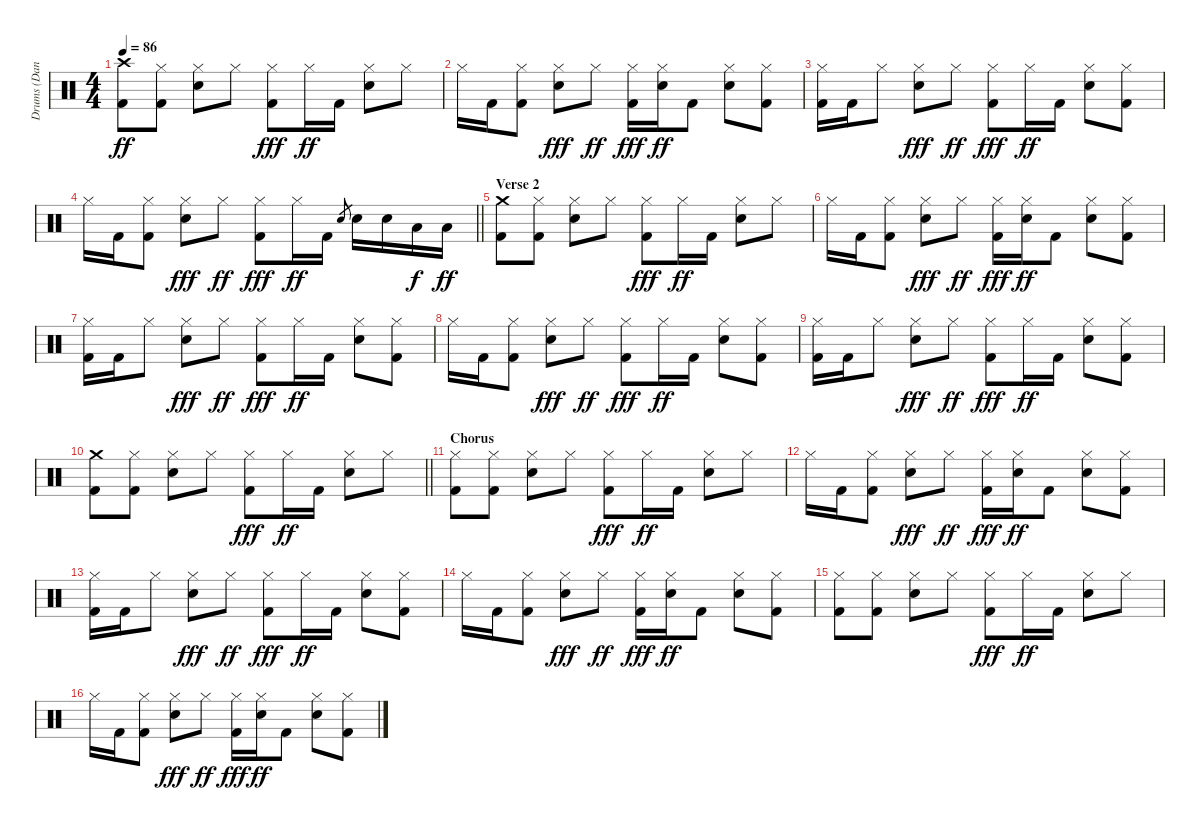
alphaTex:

\track ("Drums (Dan)" "Drums (Dan") {instrument percussion}
\staff {score}
\articulation defaults
\ts (4 4)
\tempo 86
\clef neutral
\ks c
("Crash high (hit)" "Kick (hit) 2").8{dy ff} ("Hi-Hat (closed)" "Kick (hit) 2").8 ("Hi-Hat (closed)" "Electric Snare (hit)").8 "Hi-Hat (closed)".8 ("Hi-Hat (closed)" "Kick (hit) 2").8{dy fff} "Hi-Hat (closed)".16{dy ff} "Kick (hit) 2".16 ("Hi-Hat (closed)" "Electric Snare (hit)").8 "Hi-Hat (closed)".8 |
"Hi-Hat (closed)".16 "Kick (hit) 2".16 ("Hi-Hat (closed)" "Kick (hit) 2").8 ("Hi-Hat (closed)" "Electric Snare (hit)").8{dy fff} "Hi-Hat (closed)".8{dy ff} ("Hi-Hat (closed)" "Kick (hit) 2").16{dy fff} ("Hi-Hat (closed)" "Electric Snare (hit)").16{dy ff} "Kick (hit) 2".8 ("Hi-Hat (closed)" "Electric Snare (hit)").8 ("Hi-Hat (closed)" "Kick (hit) 2").8 |
("Hi-Hat (closed)" "Kick (hit) 2").16 "Kick (hit) 2".16 "Hi-Hat (closed)".8 ("Hi-Hat (closed)" "Electric Snare (hit)").8{dy fff} "Hi-Hat (closed)".8{dy ff} ("Hi-Hat (closed)" "Kick (hit) 2").8{dy fff} "Hi-Hat (closed)".16{dy ff} "Kick (hit) 2".16 ("Hi-Hat (closed)" "Electric Snare (hit)").8 ("Hi-Hat (closed)" "Kick (hit) 2").8 |
\barLineRight lightlight "Hi-Hat (closed)".16 "Kick (hit) 2".16
("Hi-Hat (closed)" "Kick (hit) 2").8 ("Hi-Hat (closed)" "Electric Snare (hit)").8{dy fff} "Hi-Hat (closed)".8{dy ff} ("Hi-Hat (closed)" "Kick (hit) 2").8{dy fff} "Hi-Hat (closed)".16{dy ff} "Kick (hit) 2".16 "Electric Snare (hit)".8{gr} "Electric Snare (hit)".16 "Electric Snare (hit)".16 "Low Tom (hit)".16{dy f} "Low Floor Tom (hit)".16{dy ff} |
\section ("" "Verse 2")
("Crash medium (hit)" "Kick (hit) 2").8 ("Hi-Hat (closed)" "Kick (hit) 2").8 ("Hi-Hat (closed)" "Electric Snare (hit)").8 "Hi-Hat (closed)".8 ("Hi-Hat (closed)" "Kick (hit) 2").8{dy fff} "Hi-Hat (closed)".16{dy ff} "Kick (hit) 2".16 ("Hi-Hat (closed)" "Electric Snare (hit)").8 "Hi-Hat (closed)".8 |
"Hi-Hat (closed)".16 "Kick (hit) 2".16 ("Hi-Hat (closed)" "Kick (hit) 2").8 ("Hi-Hat (closed)" "Electric Snare (hit)").8{dy fff} "Hi-Hat (closed)".8{dy ff} ("Hi-Hat (closed)" "Kick (hit) 2").16{dy fff} ("Hi-Hat (closed)" "Electric Snare (hit)").16{dy ff} "Kick (hit) 2".8 ("Hi-Hat (closed)" "Electric Snare (hit)").8 ("Hi-Hat (closed)" "Kick (hit) 2").8 |
("Hi-Hat (closed)" "Kick (hit) 2").16 "Kick (hit) 2".16 "Hi-Hat (closed)".8 ("Hi-Hat (closed)" "Electric Snare (hit)").8{dy fff} "Hi-Hat (closed)".8{dy ff} ("Hi-Hat (closed)" "Kick (hit) 2").8{dy fff} "Hi-Hat (closed)".16{dy ff} "Kick (hit) 2".16 ("Hi-Hat (closed)" "Electric Snare (hit)").8 ("Hi-Hat (closed)" "Kick (hit) 2").8 |
"Hi-Hat (closed)".16 "Kick (hit) 2".16 ("Hi-Hat (closed)" "Kick (hit) 2").8 ("Hi-Hat (closed)" "Electric Snare (hit)").8{dy fff} "Hi-Hat (closed)".8{dy ff} ("Hi-Hat (closed)" "Kick (hit) 2").8{dy fff} "Hi-Hat (closed)".16{dy ff} "Kick (hit) 2".16 ("Hi-Hat (closed)" "Electric Snare (hit)").8 ("Hi-Hat (closed)" "Kick (hit) 2").8 |
("Hi-Hat (closed)" "Kick (hit) 2").16 "Kick (hit) 2".16 "Hi-Hat (closed)".8 ("Hi-Hat (closed)" "Electric Snare (hit)").8{dy fff} "Hi-Hat (closed)".8{dy ff} ("Hi-Hat (closed)" "Kick (hit) 2").8{dy fff} "Hi-Hat (closed)".16{dy ff} "Kick (hit) 2".16 ("Hi-Hat (closed)" "Electric Snare (hit)").8 ("Hi-Hat (closed)" "Kick (hit) 2").8 |
\barLineRight lightlight
("Crash medium (hit)" "Kick (hit) 2").8 ("Hi-Hat (closed)" "Kick (hit) 2").8 ("Hi-Hat (closed)" "Electric Snare (hit)").8 "Hi-Hat (closed)".8 ("Hi-Hat (closed)" "Kick (hit) 2").8{dy fff} "Hi-Hat (closed)".16{dy ff} "Kick (hit) 2".16 ("Hi-Hat (closed)" "Electric Snare (hit)").8 "Hi-Hat (closed)".8 |
\section ("" "Chorus")
("Hi-Hat (closed)" "Kick (hit) 2").8 ("Hi-Hat (closed)" "Kick (hit) 2").8 ("Hi-Hat (closed)" "Electric Snare (hit)").8 "Hi-Hat (closed)".8 ("Hi-Hat (closed)" "Kick (hit) 2").8{dy fff} "Hi-Hat (closed)".16{dy ff} "Kick (hit) 2".16 ("Hi-Hat (closed)" "Electric Snare (hit)").8 "Hi-Hat (closed)".8 |
"Hi-Hat (closed)".16 "Kick (hit) 2".16 ("Hi-Hat (closed)" "Kick (hit) 2").8 ("Hi-Hat (closed)" "Electric Snare (hit)").8{dy fff} "Hi-Hat (closed)".8{dy ff} ("Hi-Hat (closed)" "Kick (hit) 2").16{dy fff} ("Hi-Hat (closed)" "Electric Snare (hit)").16{dy ff} "Kick (hit) 2".8 ("Hi-Hat (closed)" "Electric Snare (hit)").8 ("Hi-Hat (closed)" "Kick (hit) 2").8 |
("Hi-Hat (closed)" "Kick (hit) 2").16 "Kick (hit) 2".16 "Hi-Hat (closed)".8 ("Hi-Hat (closed)" "Electric Snare (hit)").8{dy fff} "Hi-Hat (closed)".8{dy ff} ("Hi-Hat (closed)" "Kick (hit) 2").8{dy fff} "Hi-Hat (closed)".16{dy ff} "Kick (hit) 2".16 ("Hi-Hat (closed)" "Electric Snare (hit)").8 ("Hi-Hat (closed)" "Kick (hit) 2").8 |
"Hi-Hat (closed)".16 "Kick (hit) 2".16 ("Hi-Hat (closed)" "Kick (hit) 2").8 ("Hi-Hat (closed)" "Electric Snare (hit)").8{dy fff} "Hi-Hat (closed)".8{dy ff} ("Hi-Hat (closed)" "Kick (hit) 2").16{dy fff} ("Hi-Hat (closed)" "Electric Snare (hit)").16{dy ff} "Kick (hit) 2".8 ("Hi-Hat (closed)" "Electric Snare (hit)").8 ("Hi-Hat (closed)" "Kick (hit) 2").8 |
("Hi-Hat (closed)" "Kick (hit) 2").8 ("Hi-Hat (closed)" "Kick (hit) 2").8 ("Hi-Hat (closed)" "Electric Snare (hit)").8 "Hi-Hat (closed)".8 ("Hi-Hat (closed)" "Kick (hit) 2").8{dy fff} "Hi-Hat (closed)".16{dy ff} "Kick (hit) 2".16 ("Hi-Hat (closed)" "Electric Snare (hit)").8 "Hi-Hat (closed)".8 |
"Hi-Hat (closed)".16 "Kick (hit) 2".16 ("Hi-Hat (closed)" "Kick (hit) 2").8 ("Hi-Hat (closed)" "Electric Snare (hit)").8{dy fff} "Hi-Hat (closed)".8{dy ff} ("Hi-Hat (closed)" "Kick (hit) 2").16{dy fff} ("Hi-Hat (closed)" "Electric Snare (hit)").16{dy ff} "Kick (hit) 2".8 ("Hi-Hat (closed)" "Electric Snare (hit)").8 ("Hi-Hat (closed)" "Kick (hit) 2").8
